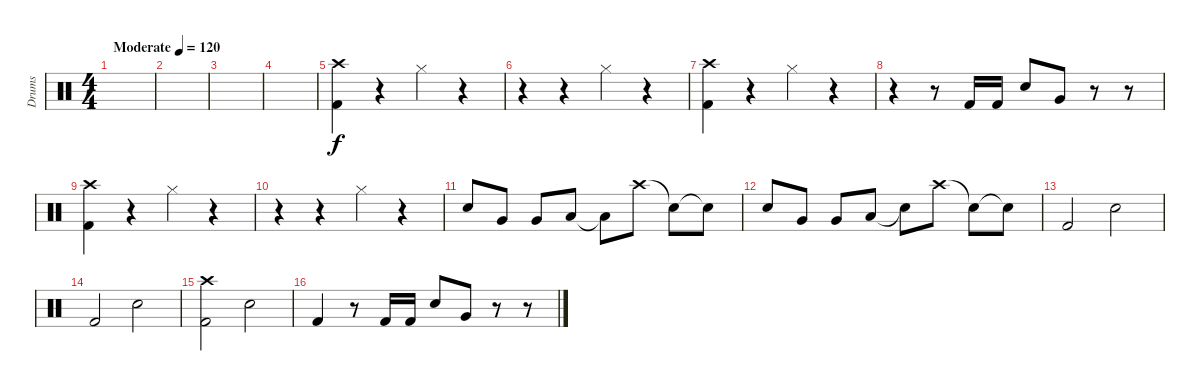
\track ("Drums" "Drums") {instrument percussion}
\staff {score}
\articulation defaults
\ts (4 4)
\tempo (120 "Moderate")
\clef neutral
\ks c
|
|
|
|
("Kick (hit) 2" "Crash high (hit)").4 r.4 "Hi-Hat (closed)".4 r.4 |
r.4 r.4 "Hi-Hat (closed)".4 r.4 |
("Kick (hit) 2" "Crash high (hit)").4 r.4 "Hi-Hat (closed)".4 r.4 |
r.4 r.8 "Kick (hit) 2".16 "Kick (hit) 2".16 "Electric Snare (hit)".8 "Very Low Tom (hit)".8 r.8 r.8 |
("Kick (hit) 2" "Crash high (hit)").4 r.4 "Hi-Hat (closed)".4 r.4 |
r.4 r.4 "Hi-Hat (closed)".4 r.4 |
"Electric Snare (hit)".8 "Very Low Tom (hit)".8 "Very Low Tom (hit)".8 "Low Tom (hit)".8 "Low Floor Tom (hit)"{t}.8 "Crash high (hit)".8 "Snare (hit)"{t}.8 "Snare (hit)"{t}.8 |
"Electric Snare (hit)".8 "Very Low Tom (hit)".8 "Very Low Tom (hit)".8 "Low Tom (hit)".8 "Snare (hit)"{t}.8 "Crash high (hit)".8 "Snare (hit)"{t}.8 "Snare (hit)"{t}.8 |
"Kick (hit) 2".2 "Electric Snare (hit)".2 |
"Kick (hit) 2".2 "Electric Snare (hit)".2 |
("Kick (hit) 2" "Crash high (hit)").2 "Electric Snare (hit)".2 |
"Kick (hit) 2".4 r.8 "Kick (hit) 2".16 "Kick (hit) 2".16 "Electric Snare (hit)".8 "Very Low Tom (hit)".8 r.8 r.8
